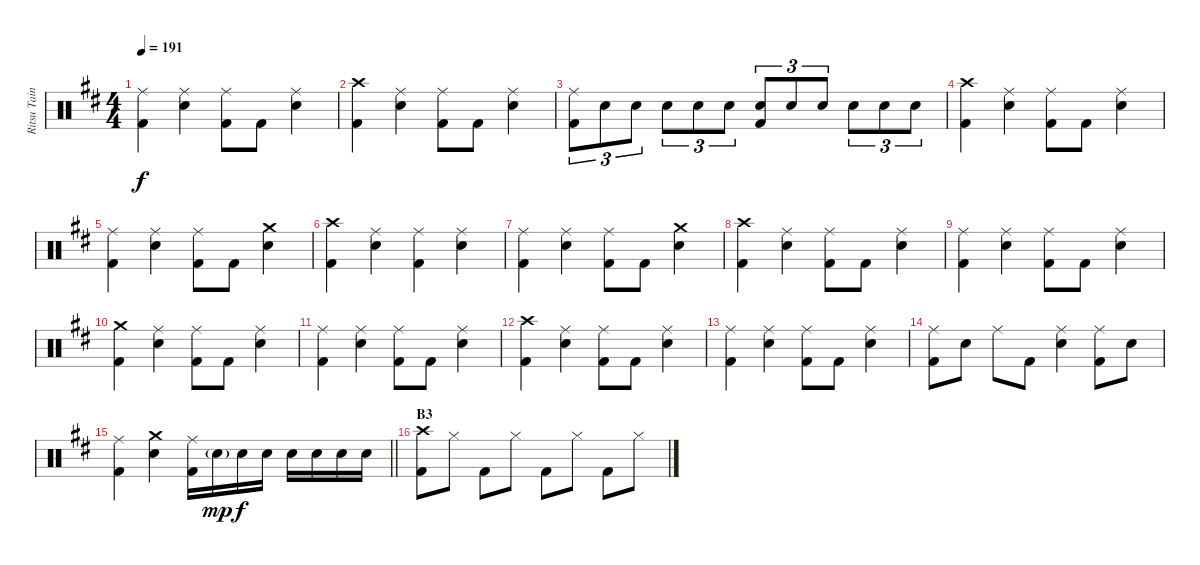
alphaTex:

\track ("Ritsu Tainaka" "Ritsu Tain") {instrument percussion}
\staff {score}
\articulation defaults
\ts (4 4)
\tempo 191
\clef neutral
\ks d
("Ride (middle)" "Kick (hit) 2").4{dy f} ("Ride (middle)" "Electric Snare (hit)").4 ("Ride (middle)" "Kick (hit) 2").8 "Kick (hit) 2".8 ("Ride (middle)" "Electric Snare (hit)").4 |
("Crash high (hit)" "Kick (hit) 2").4 ("Ride (middle)" "Electric Snare (hit)").4 ("Ride (middle)" "Kick (hit) 2").8 "Kick (hit) 2".8 ("Ride (middle)" "Electric Snare (hit)").4 |
("Ride (middle)" "Kick (hit) 2").8{tu (3 2)} "Electric Snare (hit)".8{tu (3 2)} "Electric Snare (hit)".8{tu (3 2)} "Electric Snare (hit)".8{tu (3 2)} "Electric Snare (hit)".8{tu (3 2)} "Electric Snare (hit)".8{tu (3 2)} ("Electric Snare (hit)" "Kick (hit) 2").8{tu (3 2)} "Electric Snare (hit)".8{tu (3 2)} "Electric Snare (hit)".8{tu (3 2)} "Electric Snare (hit)".8{tu (3 2)} "Electric Snare (hit)".8{tu (3 2)} "Electric Snare (hit)".8{tu (3 2)} |
("Crash high (hit)" "Kick (hit) 2").4 ("Ride (middle)" "Electric Snare (hit)").4 ("Ride (middle)" "Kick (hit) 2").8 "Kick (hit) 2".8 ("Ride (middle)" "Electric Snare (hit)").4 |
("Ride (middle)" "Kick (hit) 2").4 ("Ride (middle)" "Electric Snare (hit)").4 ("Ride (middle)" "Kick (hit) 2").8 "Kick (hit) 2".8 ("Crash medium (hit)" "Electric Snare (hit)").4 |
("Crash high (hit)" "Kick (hit) 2").4 ("Ride (middle)" "Electric Snare (hit)").4 ("Ride (middle)" "Kick (hit) 2").4 ("Ride (middle)" "Electric Snare (hit)").4 |
("Ride (middle)" "Kick (hit) 2").4 ("Ride (middle)" "Electric Snare (hit)").4 ("Ride (middle)" "Kick (hit) 2").8 "Kick (hit) 2".8 ("Crash medium (hit)" "Electric Snare (hit)").4 |
("Crash high (hit)" "Kick (hit) 2").4 ("Ride (middle)" "Electric Snare (hit)").4 ("Ride (middle)" "Kick (hit) 2").8 "Kick (hit) 2".8 ("Ride (middle)" "Electric Snare (hit)").4 |
("Ride (middle)" "Kick (hit) 2").4 ("Ride (middle)" "Electric Snare (hit)").4 ("Ride (middle)" "Kick (hit) 2").8 "Kick (hit) 2".8 ("Ride (middle)" "Electric Snare (hit)").4 |
("Crash medium (hit)" "Kick (hit) 2").4 ("Ride (middle)" "Electric Snare (hit)").4 ("Ride (middle)" "Kick (hit) 2").8 "Kick (hit) 2".8 ("Ride (middle)" "Electric Snare (hit)").4 |
("Ride (middle)" "Kick (hit) 2").4 ("Ride (middle)" "Electric Snare (hit)").4 ("Ride (middle)" "Kick (hit) 2").8 "Kick (hit) 2".8 ("Ride (middle)" "Electric Snare (hit)").4 |
("Crash high (hit)" "Kick (hit) 2").4 ("Ride (middle)" "Electric Snare (hit)").4 ("Ride (middle)" "Kick (hit) 2").8 "Kick (hit) 2".8 ("Ride (middle)" "Electric Snare (hit)").4 |
("Ride (middle)" "Kick (hit) 2").4 ("Ride (middle)" "Electric Snare (hit)").4 ("Ride (middle)" "Kick (hit) 2").8 "Kick (hit) 2".8 ("Ride (middle)" "Electric Snare (hit)").4 |
("Ride (middle)" "Kick (hit) 2").8 "Electric Snare (hit)".8 "Ride (middle)".8 "Kick (hit) 2".8 ("Ride (middle)" "Electric Snare (hit)").4 ("Ride (middle)" "Kick (hit) 2").8 "Electric Snare (hit)".8 |
\barLineRight lightlight
("Ride (middle)" "Kick (hit) 2").4 ("Crash medium (hit)" "Electric Snare (hit)").4 ("Ride (middle)" "Kick (hit) 2").16 "Electric Snare (hit)"{g}.16{dy mp} "Electric Snare (hit)".16{dy f} "Electric Snare (hit)".16 "Electric Snare (hit)".16 "Electric Snare (hit)".16 "Electric Snare (hit)".16 "Electric Snare (hit)".16 |
\section ("" "B3")
("Crash high (hit)" "Kick (hit) 2").8 "Hi-Hat (closed)".8 "Kick (hit) 2".8 "Hi-Hat (closed)".8 "Kick (hit) 2".8 "Hi-Hat (closed)".8 "Kick (hit) 2".8 "Hi-Hat (closed)".8
